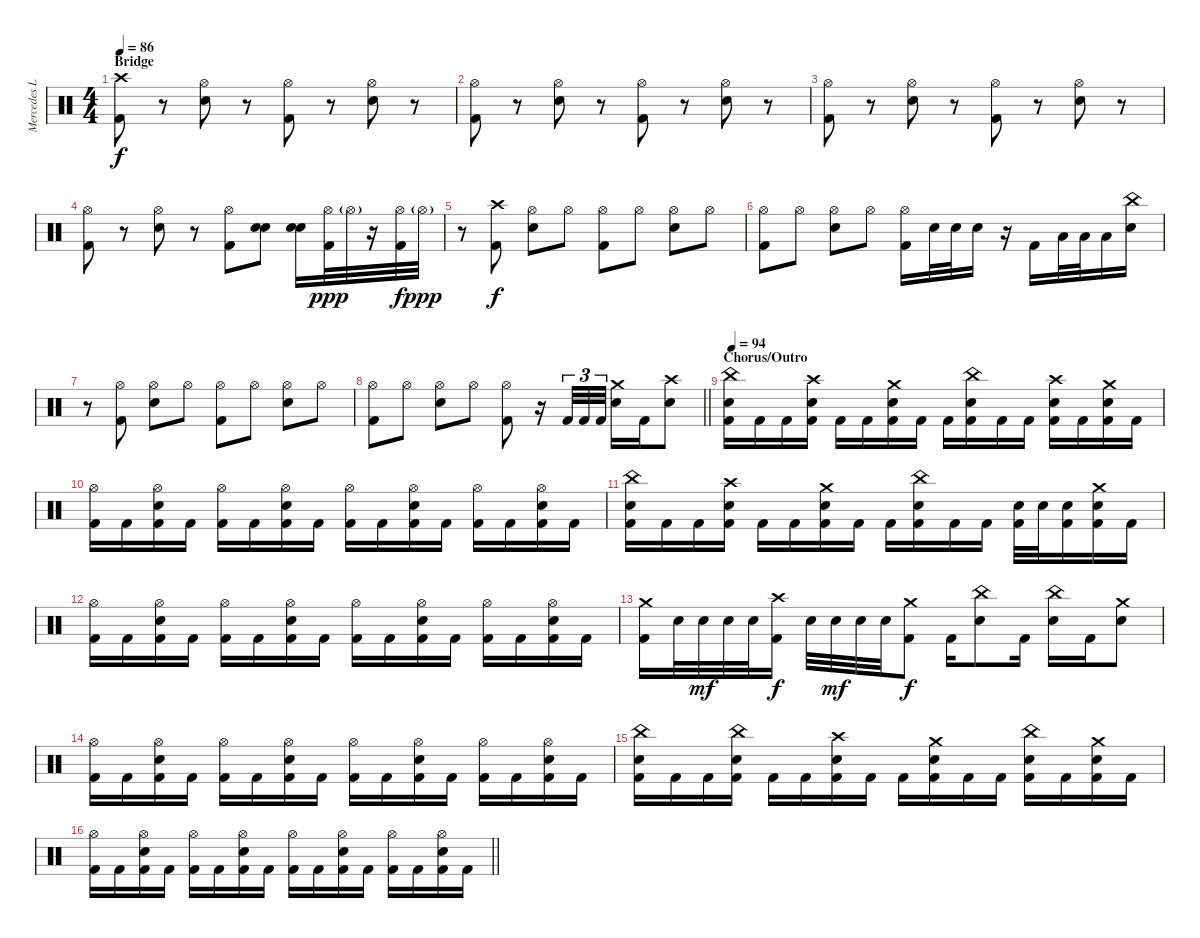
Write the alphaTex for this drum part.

\track ("Mercedes Lander" "Mercedes L") {instrument percussion}
\staff {score}
\articulation defaults
\ts (4 4)
\section ("" "Bridge")
\tempo 86
\clef neutral
\ks c
("Crash high (hit)" "Kick (hit) 2").8{dy f} r.8 ("Hi-Hat (open)" "Snare (hit) 2").8 r.8 ("Hi-Hat (open)" "Kick (hit) 2").8 r.8 ("Hi-Hat (open)" "Snare (hit) 2").8 r.8 |
("Hi-Hat (open)" "Kick (hit) 2").8 r.8 ("Hi-Hat (open)" "Snare (hit) 2").8 r.8 ("Hi-Hat (open)" "Kick (hit) 2").8 r.8 ("Hi-Hat (open)" "Snare (hit) 2").8 r.8 |
("Hi-Hat (open)" "Kick (hit) 2").8 r.8 ("Hi-Hat (open)" "Snare (hit) 2").8 r.8 ("Hi-Hat (open)" "Kick (hit) 2").8 r.8 ("Hi-Hat (open)" "Snare (hit) 2").8 r.8 |
("Hi-Hat (open)" "Kick (hit) 2").8 r.8 ("Hi-Hat (open)" "Snare (hit) 2").8 r.8 ("Hi-Hat (open)" "Kick (hit) 2").8 ("Snare (hit) 2" "Snare (hit) 2").8 ("Snare (hit) 2" "Snare (hit) 2").16 ("Hi-Hat (open)" "Kick (hit) 2").32{dy ppp} "Hi-Hat (open)"{g}.32 r.16 ("Hi-Hat (open)" "Kick (hit) 2").32{dy f} "Hi-Hat (open)"{g}.32{dy ppp} |
r.8 ("Crash high (hit)" "Kick (hit) 2").8{dy f} ("Hi-Hat (open)" "Snare (hit) 2").8 "Hi-Hat (open)".8 ("Hi-Hat (open)" "Kick (hit) 2").8 "Hi-Hat (open)".8 ("Hi-Hat (open)" "Snare (hit) 2").8 "Hi-Hat (open)".8 |
("Hi-Hat (open)" "Kick (hit) 2").8 "Hi-Hat (open)".8 ("Hi-Hat (open)" "Snare (hit) 2").8 "Hi-Hat (open)".8 ("Hi-Hat (open)" "Kick (hit) 2").16 "Snare (hit) 2".32 "Snare (hit) 2".32 "Snare (hit) 2".16 r.16 "Kick (hit) 2".16 "Low Floor Tom (hit)".32 "Low Floor Tom (hit)".32 "Low Floor Tom (hit)".16 ("China (hit)" "Snare (hit) 2").16 |
r.8 ("Hi-Hat (open)" "Kick (hit) 2").8 ("Hi-Hat (open)" "Snare (hit) 2").8 "Hi-Hat (open)".8 ("Hi-Hat (open)" "Kick (hit) 2").8 "Hi-Hat (open)".8 ("Hi-Hat (open)" "Snare (hit) 2").8 "Hi-Hat (open)".8 |
\barLineRight lightlight
("Hi-Hat (open)" "Kick (hit) 2").8 "Hi-Hat (open)".8 ("Hi-Hat (open)" "Snare (hit) 2").8 "Hi-Hat (open)".8 ("Hi-Hat (open)" "Kick (hit) 2").8 r.16 "Kick (hit) 2".32{tu (3 2)} "Kick (hit) 2".32{tu (3 2)} "Kick (hit) 2".32{tu (3 2)} ("Crash medium (hit)" "Snare (hit) 2").16 "Kick (hit) 2".16 ("Crash high (hit)" "Snare (hit) 2").8 |
\section ("" "Chorus/Outro")
\tempo 94
("China (hit)" "Snare (hit) 2" "Kick (hit) 2").16 "Kick (hit) 2".16 "Kick (hit) 2".16 ("Crash high (hit)" "Snare (hit) 2" "Kick (hit) 2").16 "Kick (hit) 2".16 "Kick (hit) 2".16 ("Crash medium (hit)" "Snare (hit) 2" "Kick (hit) 2").16 "Kick (hit) 2".16 "Kick (hit) 2".16 ("China (hit)" "Snare (hit) 2" "Kick (hit) 2").16 "Kick (hit) 2".16 "Kick (hit) 2".16 ("Crash high (hit)" "Snare (hit) 2" "Kick (hit) 2").16 "Kick (hit) 2".16 ("Crash medium (hit)" "Snare (hit) 2" "Kick (hit) 2").16 "Kick (hit) 2".16 |
("Hi-Hat (open)" "Kick (hit) 2").16 "Kick (hit) 2".16 ("Hi-Hat (open)" "Snare (hit) 2" "Kick (hit) 2").16 "Kick (hit) 2".16 ("Hi-Hat (open)" "Kick (hit) 2").16 "Kick (hit) 2".16 ("Hi-Hat (open)" "Snare (hit) 2" "Kick (hit) 2").16 "Kick (hit) 2".16 ("Hi-Hat (open)" "Kick (hit) 2").16 "Kick (hit) 2".16 ("Hi-Hat (open)" "Snare (hit) 2" "Kick (hit) 2").16 "Kick (hit) 2".16 ("Hi-Hat (open)" "Kick (hit) 2").16 "Kick (hit) 2".16 ("Hi-Hat (open)" "Snare (hit) 2" "Kick (hit) 2").16 "Kick (hit) 2".16 |
("China (hit)" "Snare (hit) 2" "Kick (hit) 2").16 "Kick (hit) 2".16 "Kick (hit) 2".16 ("Crash high (hit)" "Snare (hit) 2" "Kick (hit) 2").16 "Kick (hit) 2".16 "Kick (hit) 2".16 ("Crash medium (hit)" "Snare (hit) 2" "Kick (hit) 2").16 "Kick (hit) 2".16 "Kick (hit) 2".16 ("China (hit)" "Snare (hit) 2" "Kick (hit) 2").16 "Kick (hit) 2".16 "Kick (hit) 2".16 ("Snare (hit) 2" "Kick (hit) 2").32 "Snare (hit) 2".32 ("Snare (hit) 2" "Kick (hit) 2").16 ("Crash medium (hit)" "Snare (hit) 2" "Kick (hit) 2").16 "Kick (hit) 2".16 |
("Hi-Hat (open)" "Kick (hit) 2").16 "Kick (hit) 2".16 ("Hi-Hat (open)" "Snare (hit) 2" "Kick (hit) 2").16 "Kick (hit) 2".16 ("Hi-Hat (open)" "Kick (hit) 2").16 "Kick (hit) 2".16 ("Hi-Hat (open)" "Snare (hit) 2" "Kick (hit) 2").16 "Kick (hit) 2".16 ("Hi-Hat (open)" "Kick (hit) 2").16 "Kick (hit) 2".16 ("Hi-Hat (open)" "Snare (hit) 2" "Kick (hit) 2").16 "Kick (hit) 2".16 ("Hi-Hat (open)" "Kick (hit) 2").16 "Kick (hit) 2".16 ("Hi-Hat (open)" "Snare (hit) 2" "Kick (hit) 2").16 "Kick (hit) 2".16 |
("Crash medium (hit)" "Kick (hit) 2").16 "Snare (hit) 2".32 "Snare (hit) 2".32{dy mf} "Snare (hit) 2".32 "Snare (hit) 2".32 ("Crash high (hit)" "Kick (hit) 2").16{dy f} "Snare (hit) 2".32 "Snare (hit) 2".32{dy mf} "Snare (hit) 2".32 "Snare (hit) 2".32 ("Crash medium (hit)" "Kick (hit) 2").8{dy f} "Kick (hit) 2".16 ("China (hit)" "Snare (hit) 2").8 "Kick (hit) 2".16 ("China (hit)" "Snare (hit) 2").16 "Kick (hit) 2".16 ("Crash medium (hit)" "Snare (hit) 2").8 |
("Hi-Hat (open)" "Kick (hit) 2").16 "Kick (hit) 2".16 ("Hi-Hat (open)" "Snare (hit) 2" "Kick (hit) 2").16 "Kick (hit) 2".16 ("Hi-Hat (open)" "Kick (hit) 2").16 "Kick (hit) 2".16 ("Hi-Hat (open)" "Snare (hit) 2" "Kick (hit) 2").16 "Kick (hit) 2".16 ("Hi-Hat (open)" "Kick (hit) 2").16 "Kick (hit) 2".16 ("Hi-Hat (open)" "Snare (hit) 2" "Kick (hit) 2").16 "Kick (hit) 2".16 ("Hi-Hat (open)" "Kick (hit) 2").16 "Kick (hit) 2".16 ("Hi-Hat (open)" "Snare (hit) 2" "Kick (hit) 2").16 "Kick (hit) 2".16 |
("China (hit)" "Snare (hit) 2" "Kick (hit) 2").16 "Kick (hit) 2".16 "Kick (hit) 2".16 ("China (hit)" "Snare (hit) 2" "Kick (hit) 2").16 "Kick (hit) 2".16 "Kick (hit) 2".16 ("Crash high (hit)" "Snare (hit) 2" "Kick (hit) 2").16 "Kick (hit) 2".16 "Kick (hit) 2".16 ("Crash medium (hit)" "Snare (hit) 2" "Kick (hit) 2").16 "Kick (hit) 2".16 "Kick (hit) 2".16 ("China (hit)" "Snare (hit) 2" "Kick (hit) 2").16 "Kick (hit) 2".16 ("Crash medium (hit)" "Snare (hit) 2" "Kick (hit) 2").16 "Kick (hit) 2".16 |
\barLineRight lightlight
("Hi-Hat (open)" "Kick (hit) 2").16 "Kick (hit) 2".16 ("Hi-Hat (open)" "Snare (hit) 2" "Kick (hit) 2").16 "Kick (hit) 2".16 ("Hi-Hat (open)" "Kick (hit) 2").16 "Kick (hit) 2".16 ("Hi-Hat (open)" "Snare (hit) 2" "Kick (hit) 2").16 "Kick (hit) 2".16 ("Hi-Hat (open)" "Kick (hit) 2").16 "Kick (hit) 2".16 ("Hi-Hat (open)" "Snare (hit) 2" "Kick (hit) 2").16 "Kick (hit) 2".16 ("Hi-Hat (open)" "Kick (hit) 2").16 "Kick (hit) 2".16 ("Hi-Hat (open)" "Snare (hit) 2" "Kick (hit) 2").16 "Kick (hit) 2".16
